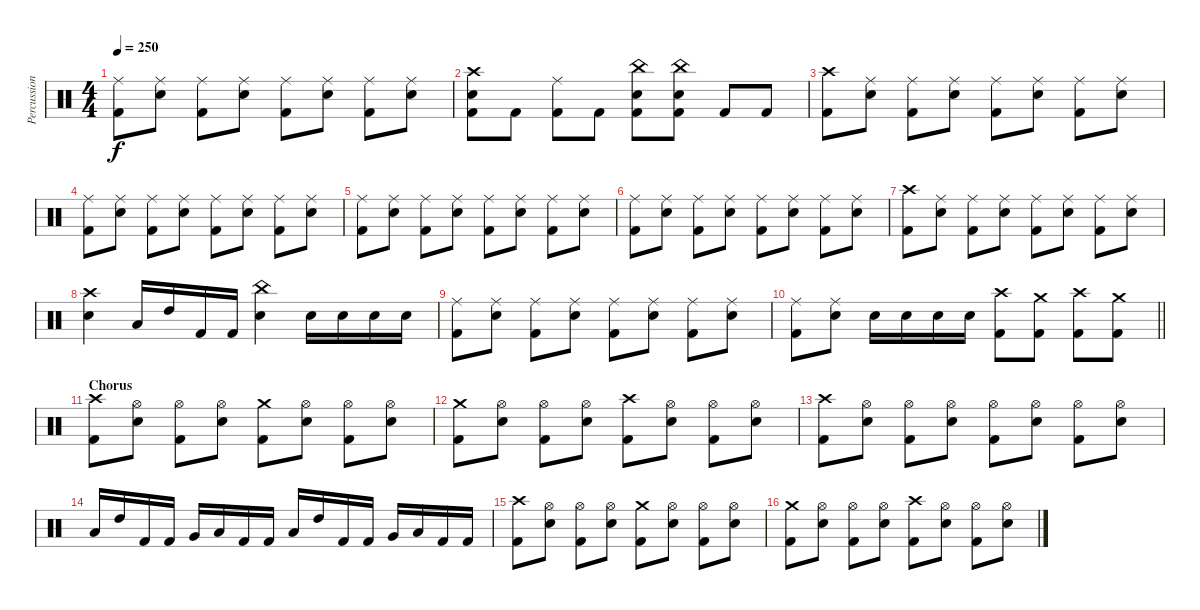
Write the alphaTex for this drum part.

\track ("Percussion" "Percussion") {instrument percussion}
\staff {score}
\articulation defaults
\ts (4 4)
\tempo 250
\clef neutral
\ks c
("Ride (middle)" "Kick (hit) 2").8{dy f} ("Ride (middle)" "Electric Snare (hit)").8 ("Ride (middle)" "Kick (hit) 2").8 ("Ride (middle)" "Electric Snare (hit)").8 ("Ride (middle)" "Kick (hit) 2").8 ("Ride (middle)" "Electric Snare (hit)").8 ("Ride (middle)" "Kick (hit) 2").8 ("Ride (middle)" "Electric Snare (hit)").8 |
("Crash high (hit)" "Kick (hit) 2" "Electric Snare (hit)").8 "Kick (hit) 2".8 ("Ride (middle)" "Kick (hit) 2").8 "Kick (hit) 2".8 ("China (hit)" "Kick (hit) 2" "Electric Snare (hit)").8 ("China (hit)" "Kick (hit) 2" "Electric Snare (hit)").8 "Kick (hit) 2".8 "Kick (hit) 2".8 |
("Crash high (hit)" "Kick (hit) 2").8 ("Ride (middle)" "Electric Snare (hit)").8 ("Ride (middle)" "Kick (hit) 2").8 ("Ride (middle)" "Electric Snare (hit)").8 ("Ride (middle)" "Kick (hit) 2").8 ("Ride (middle)" "Electric Snare (hit)").8 ("Ride (middle)" "Kick (hit) 2").8 ("Ride (middle)" "Electric Snare (hit)").8 |
("Ride (middle)" "Kick (hit) 2").8 ("Ride (middle)" "Electric Snare (hit)").8 ("Ride (middle)" "Kick (hit) 2").8 ("Ride (middle)" "Electric Snare (hit)").8 ("Ride (middle)" "Kick (hit) 2").8 ("Ride (middle)" "Electric Snare (hit)").8 ("Ride (middle)" "Kick (hit) 2").8 ("Ride (middle)" "Electric Snare (hit)").8 |
("Ride (middle)" "Kick (hit) 2").8 ("Ride (middle)" "Electric Snare (hit)").8 ("Ride (middle)" "Kick (hit) 2").8 ("Ride (middle)" "Electric Snare (hit)").8 ("Ride (middle)" "Kick (hit) 2").8 ("Ride (middle)" "Electric Snare (hit)").8 ("Ride (middle)" "Kick (hit) 2").8 ("Ride (middle)" "Electric Snare (hit)").8 |
("Ride (middle)" "Kick (hit) 2").8 ("Ride (middle)" "Electric Snare (hit)").8 ("Ride (middle)" "Kick (hit) 2").8 ("Ride (middle)" "Electric Snare (hit)").8 ("Ride (middle)" "Kick (hit) 2").8 ("Ride (middle)" "Electric Snare (hit)").8 ("Ride (middle)" "Kick (hit) 2").8 ("Ride (middle)" "Electric Snare (hit)").8 |
("Crash high (hit)" "Kick (hit) 2").8 ("Ride (middle)" "Electric Snare (hit)").8 ("Ride (middle)" "Kick (hit) 2").8 ("Ride (middle)" "Electric Snare (hit)").8 ("Ride (middle)" "Kick (hit) 2").8 ("Ride (middle)" "Electric Snare (hit)").8 ("Ride (middle)" "Kick (hit) 2").8 ("Ride (middle)" "Electric Snare (hit)").8 |
("Crash high (hit)" "Electric Snare (hit)").4 "Low Tom (hit)".16 "High Tom (hit)".16 "Kick (hit) 2".16 "Kick (hit) 2".16 ("China (hit)" "Electric Snare (hit)").4 "Electric Snare (hit)".16 "Electric Snare (hit)".16 "Electric Snare (hit)".16 "Electric Snare (hit)".16 |
("Ride (middle)" "Kick (hit) 2").8 ("Ride (middle)" "Electric Snare (hit)").8 ("Ride (middle)" "Kick (hit) 2").8 ("Ride (middle)" "Electric Snare (hit)").8 ("Ride (middle)" "Kick (hit) 2").8 ("Ride (middle)" "Electric Snare (hit)").8 ("Ride (middle)" "Kick (hit) 2").8 ("Ride (middle)" "Electric Snare (hit)").8 |
\barLineRight lightlight
("Ride (middle)" "Kick (hit) 2").8 ("Ride (middle)" "Electric Snare (hit)").8 "Electric Snare (hit)".16 "Electric Snare (hit)".16 "Electric Snare (hit)".16 "Electric Snare (hit)".16 ("Crash high (hit)" "Kick (hit) 2").8 ("Crash medium (hit)" "Kick (hit) 2").8 ("Crash high (hit)" "Kick (hit) 2").8 ("Crash medium (hit)" "Kick (hit) 2").8 |
\section ("" "Chorus")
("Crash high (hit)" "Kick (hit) 2").8 ("Hi-Hat (open)" "Electric Snare (hit)").8 ("Hi-Hat (open)" "Kick (hit) 2").8 ("Hi-Hat (open)" "Electric Snare (hit)").8 ("Crash medium (hit)" "Kick (hit) 2").8 ("Hi-Hat (open)" "Electric Snare (hit)").8 ("Hi-Hat (open)" "Kick (hit) 2").8 ("Hi-Hat (open)" "Electric Snare (hit)").8 |
("Crash medium (hit)" "Kick (hit) 2").8 ("Hi-Hat (open)" "Electric Snare (hit)").8 ("Hi-Hat (open)" "Kick (hit) 2").8 ("Hi-Hat (open)" "Electric Snare (hit)").8 ("Crash high (hit)" "Kick (hit) 2").8 ("Hi-Hat (open)" "Electric Snare (hit)").8 ("Hi-Hat (open)" "Kick (hit) 2").8 ("Hi-Hat (open)" "Electric Snare (hit)").8 |
("Crash high (hit)" "Kick (hit) 2").8 ("Hi-Hat (open)" "Electric Snare (hit)").8 ("Hi-Hat (open)" "Kick (hit) 2").8 ("Hi-Hat (open)" "Electric Snare (hit)").8 ("Hi-Hat (open)" "Kick (hit) 2").8 ("Hi-Hat (open)" "Electric Snare (hit)").8 ("Hi-Hat (open)" "Kick (hit) 2").8 ("Hi-Hat (open)" "Electric Snare (hit)").8 |
"Low Tom (hit)".16 "High Tom (hit)".16 "Kick (hit) 2".16 "Kick (hit) 2".16 "Very Low Tom (hit)".16 "Low Tom (hit)".16 "Kick (hit) 2".16 "Kick (hit) 2".16 "Low Tom (hit)".16 "High Tom (hit)".16 "Kick (hit) 2".16 "Kick (hit) 2".16 "Very Low Tom (hit)".16 "Low Tom (hit)".16 "Kick (hit) 2".16 "Kick (hit) 2".16 |
("Crash high (hit)" "Kick (hit) 2").8 ("Hi-Hat (open)" "Electric Snare (hit)").8 ("Hi-Hat (open)" "Kick (hit) 2").8 ("Hi-Hat (open)" "Electric Snare (hit)").8 ("Crash medium (hit)" "Kick (hit) 2").8 ("Hi-Hat (open)" "Electric Snare (hit)").8 ("Hi-Hat (open)" "Kick (hit) 2").8 ("Hi-Hat (open)" "Electric Snare (hit)").8 |
("Crash medium (hit)" "Kick (hit) 2").8 ("Hi-Hat (open)" "Electric Snare (hit)").8 ("Hi-Hat (open)" "Kick (hit) 2").8 ("Hi-Hat (open)" "Electric Snare (hit)").8 ("Crash high (hit)" "Kick (hit) 2").8 ("Hi-Hat (open)" "Electric Snare (hit)").8 ("Hi-Hat (open)" "Kick (hit) 2").8 ("Hi-Hat (open)" "Electric Snare (hit)").8
